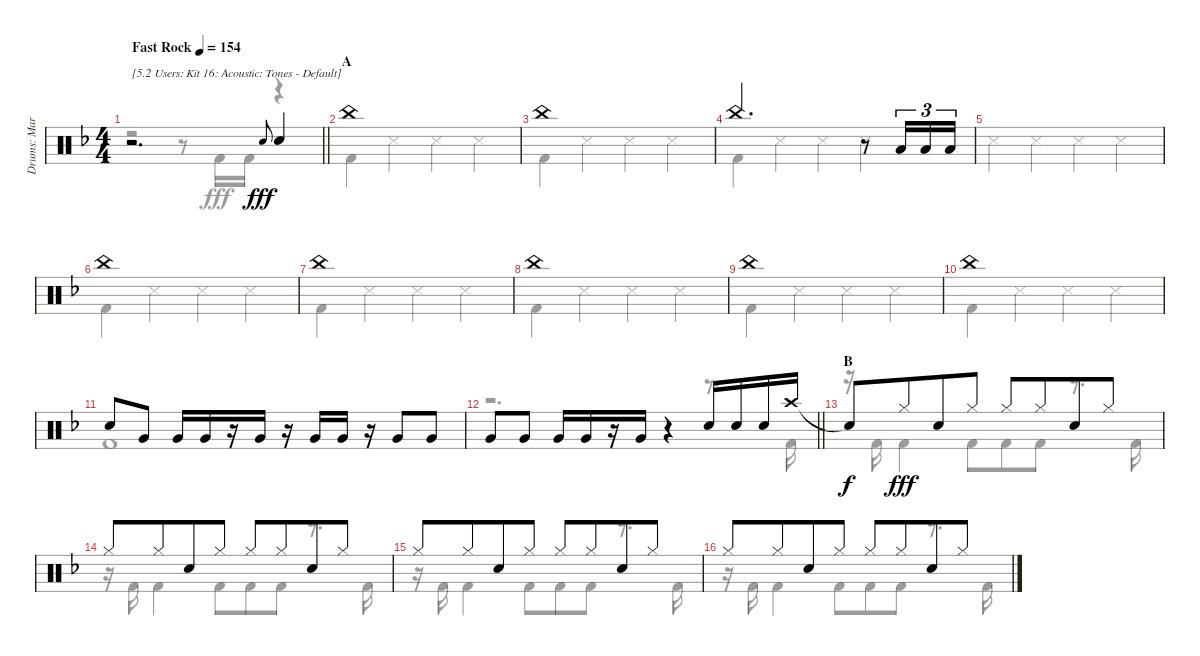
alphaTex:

\track ("Drums: Mark" "Drums: Mar") {instrument percussion}
\staff {score}
\articulation defaults
\voice
\ts (4 4)
\tempo (154 "Fast Rock")
\clef neutral
\barLineRight lightlight
\ks f
r.2{d txt "[5.2 Users: Kit 16: Acoustic: Tones - Default]" dy fff} "Electric Snare (hit)".8{gr onbeat} "Snare (hit) 2".4 |
\section ("" "A")
"China (hit)".1 |
"China (hit)".1 |
"China (hit)".2{d} r.8 "Low Tom (hit)".16{tu (3 2)} "Low Tom (hit)".16{tu (3 2)} "Low Tom (hit)".16{tu (3 2)} |
|
"China (hit)".1 |
"China (hit)".1 |
"China (hit)".1 |
"China (hit)".1 |
"China (hit)".1 |
"Snare (hit) 2".8 "Very Low Tom (hit)".8 "Very Low Tom (hit)".16 "Very Low Tom (hit)".16 r.16 "Very Low Tom (hit)".16 r.16 "Very Low Tom (hit)".16 "Very Low Tom (hit)".16 r.16 "Very Low Tom (hit)".8 "Very Low Tom (hit)".8 |
\barLineRight lightlight "Very Low Tom (hit)".8 "Very Low Tom (hit)".8 "Very Low Tom (hit)".16 "Very Low Tom (hit)".16
r.16 "Very Low Tom (hit)".16 r.4 "Snare (hit) 2".16 "Snare (hit) 2".16 "Snare (hit) 2".16 "Crash high (hit)".16 |
\section ("" "B")
"Snare (hit)"{t}.8{dy f} "Hi-Hat (closed)".8{dy fff beam merge} "Snare (hit) 2".8 "Hi-Hat (closed)".8 "Hi-Hat (closed)".8 "Hi-Hat (closed)".8{beam merge} "Snare (hit) 2".8 "Hi-Hat (closed)".8 |
"Hi-Hat (closed)".8 "Hi-Hat (closed)".8{beam merge} "Snare (hit) 2".8 "Hi-Hat (closed)".8 "Hi-Hat (closed)".8 "Hi-Hat (closed)".8{beam merge} "Snare (hit) 2".8 "Hi-Hat (closed)".8 |
"Hi-Hat (closed)".8 "Hi-Hat (closed)".8{beam merge} "Snare (hit) 2".8 "Hi-Hat (closed)".8 "Hi-Hat (closed)".8 "Hi-Hat (closed)".8{beam merge} "Snare (hit) 2".8 "Hi-Hat (closed)".8 |
"Hi-Hat (closed)".8 "Hi-Hat (closed)".8{beam merge} "Snare (hit) 2".8 "Hi-Hat (closed)".8 "Hi-Hat (closed)".8 "Hi-Hat (closed)".8{beam merge} "Snare (hit) 2".8 "Hi-Hat (closed)".8
\voice
\clef neutral
\ottava regular
\simile none
\barLineRight lightlight
\ks f
r.2{dy fff} r.8 "Kick (hit) 2".16 "Kick (hit) 2".16 r.4 |
"Kick (hit) 2".4 "Snare (side stick) 3".4 "Snare (side stick) 3".4 "Snare (side stick) 3".4 |
"Kick (hit) 2".4 "Snare (side stick) 3".4 "Snare (side stick) 3".4 "Snare (side stick) 3".4 |
"Kick (hit) 2".4 "Snare (side stick) 3".4 "Snare (side stick) 3".4 "Snare (side stick) 3".4 |
"Snare (side stick) 3".4 "Snare (side stick) 3".4 "Snare (side stick) 3".4 "Snare (side stick) 3".4 |
"Kick (hit) 2".4 "Snare (side stick) 3".4 "Snare (side stick) 3".4 "Snare (side stick) 3".4 |
"Kick (hit) 2".4 "Snare (side stick) 3".4 "Snare (side stick) 3".4 "Snare (side stick) 3".4 |
"Kick (hit) 2".4 "Snare (side stick) 3".4 "Snare (side stick) 3".4 "Snare (side stick) 3".4 |
"Kick (hit) 2".4 "Snare (side stick) 3".4 "Snare (side stick) 3".4 "Snare (side stick) 3".4 |
"Kick (hit) 2".4 "Snare (side stick) 3".4 "Snare (side stick) 3".4 "Snare (side stick) 3".4 |
"Kick (hit) 2".1 |
\barLineRight lightlight
r.2{d} r.8{d} "Kick (hit) 2".16 |
r.16 "Kick (hit) 2".16 "Kick (hit) 2".4 "Kick (hit) 2".8{beam merge} "Kick (hit) 2".8 "Kick (hit) 2".8 r.8{d} "Kick (hit) 2".16 |
r.16 "Kick (hit) 2".16 "Kick (hit) 2".4 "Kick (hit) 2".8{beam merge} "Kick (hit) 2".8 "Kick (hit) 2".8 r.8{d} "Kick (hit) 2".16 |
r.16 "Kick (hit) 2".16 "Kick (hit) 2".4 "Kick (hit) 2".8{beam merge} "Kick (hit) 2".8 "Kick (hit) 2".8 r.8{d} "Kick (hit) 2".16 |
r.16 "Kick (hit) 2".16 "Kick (hit) 2".4 "Kick (hit) 2".8{beam merge} "Kick (hit) 2".8 "Kick (hit) 2".8 r.8{d} "Kick (hit) 2".16
